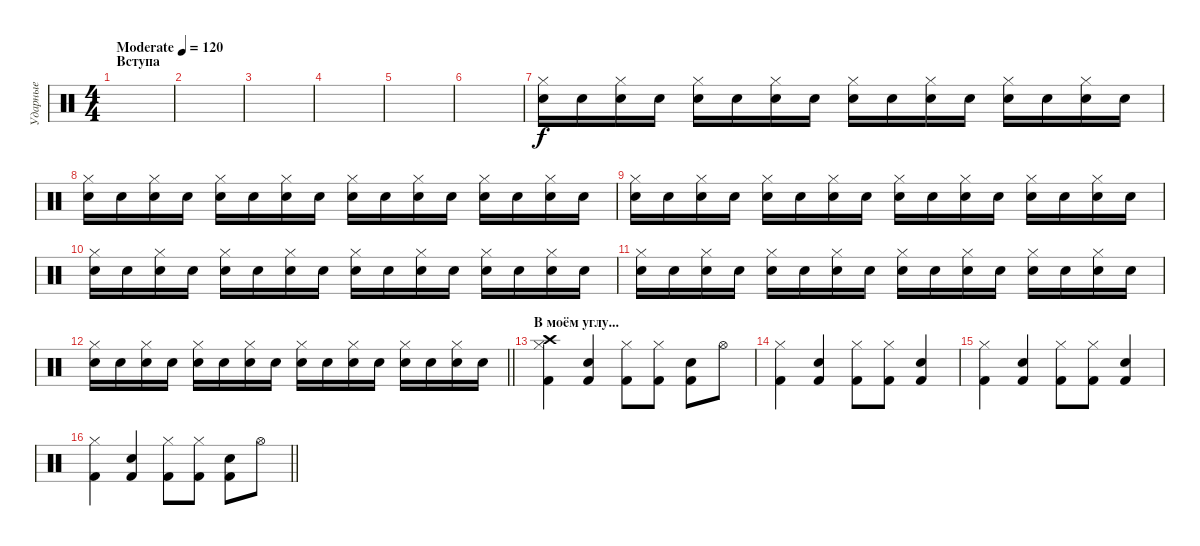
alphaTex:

\track ("Ударные" "Ударные") {instrument percussion}
\staff {score}
\articulation defaults
\ts (4 4)
\section ("" "Вступа")
\tempo (120 "Moderate")
\clef neutral
\ks c
|
|
|
|
|
|
("Electric Snare (hit)" "Hi-Hat (closed)").16 "Electric Snare (hit)".16 ("Electric Snare (hit)" "Hi-Hat (closed)").16 "Electric Snare (hit)".16 ("Electric Snare (hit)" "Hi-Hat (closed)").16 "Electric Snare (hit)".16 ("Electric Snare (hit)" "Hi-Hat (closed)").16 "Electric Snare (hit)".16 ("Electric Snare (hit)" "Hi-Hat (closed)").16 "Electric Snare (hit)".16 ("Electric Snare (hit)" "Hi-Hat (closed)").16 "Electric Snare (hit)".16 ("Electric Snare (hit)" "Hi-Hat (closed)").16 "Electric Snare (hit)".16 ("Electric Snare (hit)" "Hi-Hat (closed)").16 "Electric Snare (hit)".16 |
("Electric Snare (hit)" "Hi-Hat (closed)").16 "Electric Snare (hit)".16 ("Electric Snare (hit)" "Hi-Hat (closed)").16 "Electric Snare (hit)".16 ("Electric Snare (hit)" "Hi-Hat (closed)").16 "Electric Snare (hit)".16 ("Electric Snare (hit)" "Hi-Hat (closed)").16 "Electric Snare (hit)".16 ("Electric Snare (hit)" "Hi-Hat (closed)").16 "Electric Snare (hit)".16 ("Electric Snare (hit)" "Hi-Hat (closed)").16 "Electric Snare (hit)".16 ("Electric Snare (hit)" "Hi-Hat (closed)").16 "Electric Snare (hit)".16 ("Electric Snare (hit)" "Hi-Hat (closed)").16 "Electric Snare (hit)".16 |
("Electric Snare (hit)" "Hi-Hat (closed)").16{volume 13} "Electric Snare (hit)".16 ("Electric Snare (hit)" "Hi-Hat (closed)").16 "Electric Snare (hit)".16 ("Electric Snare (hit)" "Hi-Hat (closed)").16 "Electric Snare (hit)".16 ("Electric Snare (hit)" "Hi-Hat (closed)").16 "Electric Snare (hit)".16 ("Electric Snare (hit)" "Hi-Hat (closed)").16 "Electric Snare (hit)".16 ("Electric Snare (hit)" "Hi-Hat (closed)").16 "Electric Snare (hit)".16 ("Electric Snare (hit)" "Hi-Hat (closed)").16 "Electric Snare (hit)".16 ("Electric Snare (hit)" "Hi-Hat (closed)").16 "Electric Snare (hit)".16 |
("Electric Snare (hit)" "Hi-Hat (closed)").16 "Electric Snare (hit)".16 ("Electric Snare (hit)" "Hi-Hat (closed)").16 "Electric Snare (hit)".16 ("Electric Snare (hit)" "Hi-Hat (closed)").16 "Electric Snare (hit)".16 ("Electric Snare (hit)" "Hi-Hat (closed)").16 "Electric Snare (hit)".16 ("Electric Snare (hit)" "Hi-Hat (closed)").16 "Electric Snare (hit)".16 ("Electric Snare (hit)" "Hi-Hat (closed)").16 "Electric Snare (hit)".16 ("Electric Snare (hit)" "Hi-Hat (closed)").16 "Electric Snare (hit)".16 ("Electric Snare (hit)" "Hi-Hat (closed)").16 "Electric Snare (hit)".16 |
("Electric Snare (hit)" "Hi-Hat (closed)").16 "Electric Snare (hit)".16 ("Electric Snare (hit)" "Hi-Hat (closed)").16 "Electric Snare (hit)".16 ("Electric Snare (hit)" "Hi-Hat (closed)").16 "Electric Snare (hit)".16 ("Electric Snare (hit)" "Hi-Hat (closed)").16 "Electric Snare (hit)".16 ("Electric Snare (hit)" "Hi-Hat (closed)").16 "Electric Snare (hit)".16 ("Electric Snare (hit)" "Hi-Hat (closed)").16 "Electric Snare (hit)".16 ("Electric Snare (hit)" "Hi-Hat (closed)").16 "Electric Snare (hit)".16 ("Electric Snare (hit)" "Hi-Hat (closed)").16 "Electric Snare (hit)".16 |
\barLineRight lightlight
("Electric Snare (hit)" "Hi-Hat (closed)").16 "Electric Snare (hit)".16 ("Electric Snare (hit)" "Hi-Hat (closed)").16 "Electric Snare (hit)".16 ("Electric Snare (hit)" "Hi-Hat (closed)").16 "Electric Snare (hit)".16 ("Electric Snare (hit)" "Hi-Hat (closed)").16 "Electric Snare (hit)".16 ("Electric Snare (hit)" "Hi-Hat (closed)").16 "Electric Snare (hit)".16 ("Electric Snare (hit)" "Hi-Hat (closed)").16 "Electric Snare (hit)".16 ("Electric Snare (hit)" "Hi-Hat (closed)").16 "Electric Snare (hit)".16 ("Electric Snare (hit)" "Hi-Hat (closed)").16 "Electric Snare (hit)".16 |
\section ("" "В моём углу...")
("Kick (hit) 2" "Hi-Hat (closed)" "Crash high (hit)").4 ("Snare (hit) 2" "Kick (hit) 2").4 ("Kick (hit) 2" "Hi-Hat (closed)").8 ("Kick (hit) 2" "Hi-Hat (closed)").8 ("Snare (hit) 2" "Kick (hit) 2").8 "Hi-Hat (open)".8 |
("Kick (hit) 2" "Hi-Hat (closed)").4 ("Snare (hit) 2" "Kick (hit) 2").4 ("Kick (hit) 2" "Hi-Hat (closed)").8 ("Kick (hit) 2" "Hi-Hat (closed)").8 ("Snare (hit) 2" "Kick (hit) 2").4 |
("Kick (hit) 2" "Hi-Hat (closed)").4 ("Snare (hit) 2" "Kick (hit) 2").4 ("Kick (hit) 2" "Hi-Hat (closed)").8 ("Kick (hit) 2" "Hi-Hat (closed)").8 ("Snare (hit) 2" "Kick (hit) 2").4 |
\barLineRight lightlight
("Kick (hit) 2" "Hi-Hat (closed)").4 ("Snare (hit) 2" "Kick (hit) 2").4 ("Kick (hit) 2" "Hi-Hat (closed)").8 ("Kick (hit) 2" "Hi-Hat (closed)").8 ("Snare (hit) 2" "Kick (hit) 2").8 "Hi-Hat (open)".8
